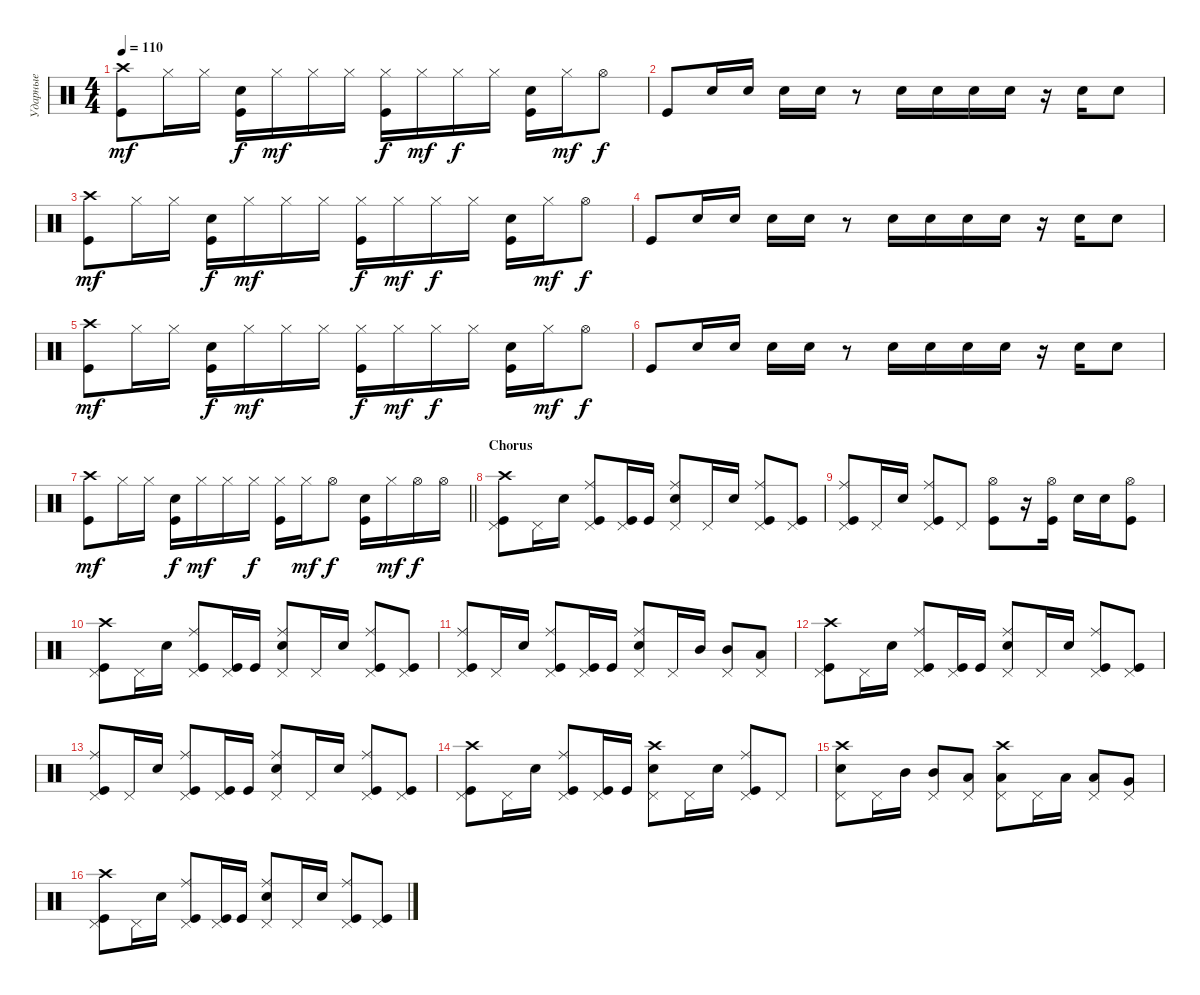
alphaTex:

\track ("Ударные" "Ударные") {instrument percussion}
\staff {score}
\articulation defaults
\ts (4 4)
\tempo 110
\clef neutral
\ks c
("Crash high (hit)" "Kick (hit)").8{dy mf} "Hi-Hat (closed)".16 "Hi-Hat (closed)".16 ("Snare (hit) 2" "Kick (hit)").16{dy f} "Hi-Hat (closed)".16{dy mf} "Hi-Hat (closed)".16 "Hi-Hat (closed)".16 ("Hi-Hat (closed)" "Kick (hit)").16{dy f} "Hi-Hat (closed)".16{dy mf} "Hi-Hat (closed)".16{dy f} "Hi-Hat (closed)".16 ("Kick (hit)" "Snare (hit) 2").16 "Hi-Hat (closed)".16{dy mf} "Hi-Hat (open)".8{dy f} |
"Kick (hit)".8 "Snare (hit) 2".16 "Snare (hit) 2".16 "Snare (hit) 2".16 "Snare (hit) 2".16 r.8 "Snare (hit) 2".16 "Snare (hit) 2".16 "Snare (hit) 2".16 "Snare (hit) 2".16 r.16 "Snare (hit) 2".16 "Snare (hit) 2".8 |
("Crash high (hit)" "Kick (hit)").8{dy mf} "Hi-Hat (closed)".16 "Hi-Hat (closed)".16 ("Snare (hit) 2" "Kick (hit)").16{dy f} "Hi-Hat (closed)".16{dy mf} "Hi-Hat (closed)".16 "Hi-Hat (closed)".16 ("Hi-Hat (closed)" "Kick (hit)").16{dy f} "Hi-Hat (closed)".16{dy mf} "Hi-Hat (closed)".16{dy f} "Hi-Hat (closed)".16 ("Kick (hit)" "Snare (hit) 2").16 "Hi-Hat (closed)".16{dy mf} "Hi-Hat (open)".8{dy f} |
"Kick (hit)".8 "Snare (hit) 2".16 "Snare (hit) 2".16 "Snare (hit) 2".16 "Snare (hit) 2".16 r.8 "Snare (hit) 2".16 "Snare (hit) 2".16 "Snare (hit) 2".16 "Snare (hit) 2".16 r.16 "Snare (hit) 2".16 "Snare (hit) 2".8 |
("Crash high (hit)" "Kick (hit)").8{dy mf} "Hi-Hat (closed)".16 "Hi-Hat (closed)".16 ("Snare (hit) 2" "Kick (hit)").16{dy f} "Hi-Hat (closed)".16{dy mf} "Hi-Hat (closed)".16 "Hi-Hat (closed)".16 ("Hi-Hat (closed)" "Kick (hit)").16{dy f} "Hi-Hat (closed)".16{dy mf} "Hi-Hat (closed)".16{dy f} "Hi-Hat (closed)".16 ("Kick (hit)" "Snare (hit) 2").16 "Hi-Hat (closed)".16{dy mf} "Hi-Hat (open)".8{dy f} |
"Kick (hit)".8 "Snare (hit) 2".16 "Snare (hit) 2".16 "Snare (hit) 2".16 "Snare (hit) 2".16 r.8 "Snare (hit) 2".16 "Snare (hit) 2".16 "Snare (hit) 2".16 "Snare (hit) 2".16 r.16 "Snare (hit) 2".16 "Snare (hit) 2".8 |
\barLineRight lightlight
("Crash high (hit)" "Kick (hit)").8{dy mf} "Hi-Hat (closed)".16 "Hi-Hat (closed)".16 ("Snare (hit) 2" "Kick (hit)").16{dy f} "Hi-Hat (closed)".16{dy mf} "Hi-Hat (closed)".16 "Hi-Hat (closed)".16{dy f} ("Hi-Hat (closed)" "Kick (hit)").16 "Hi-Hat (closed)".16{dy mf} "Hi-Hat (open)".8{dy f} ("Kick (hit)" "Snare (hit) 2").16 "Hi-Hat (closed)".16{dy mf} "Hi-Hat (open)".16{dy f} "Hi-Hat (open)".16 |
\section ("" "Chorus")
("Kick (hit)" "Crash high (hit)" "Pedal Hi-Hat (hit)").8 "Pedal Hi-Hat (hit)".16 "Snare (hit) 2".16 ("Kick (hit)" "Ride (middle)" "Pedal Hi-Hat (hit)").8 ("Pedal Hi-Hat (hit)" "Kick (hit)").16 "Kick (hit)".16 ("Snare (hit) 2" "Ride (middle)" "Pedal Hi-Hat (hit)").8 "Pedal Hi-Hat (hit)".16 "Snare (hit) 2".16 ("Kick (hit)" "Ride (middle)" "Pedal Hi-Hat (hit)").8 ("Kick (hit)" "Pedal Hi-Hat (hit)").8 |
("Kick (hit)" "Ride (middle)" "Pedal Hi-Hat (hit)").8 "Pedal Hi-Hat (hit)".16 "Snare (hit) 2".16 ("Kick (hit)" "Ride (middle)" "Pedal Hi-Hat (hit)").8 "Pedal Hi-Hat (hit)".8 ("Kick (hit)" "Hi-Hat (open)").8 r.16 ("Kick (hit)" "Hi-Hat (open)").16 "Snare (hit) 2".16 "Snare (hit) 2".16 ("Kick (hit)" "Hi-Hat (open)").8 |
("Kick (hit)" "Crash high (hit)" "Pedal Hi-Hat (hit)").8 "Pedal Hi-Hat (hit)".16 "Snare (hit) 2".16 ("Kick (hit)" "Ride (middle)" "Pedal Hi-Hat (hit)").8 ("Pedal Hi-Hat (hit)" "Kick (hit)").16 "Kick (hit)".16 ("Snare (hit) 2" "Ride (middle)" "Pedal Hi-Hat (hit)").8 "Pedal Hi-Hat (hit)".16 "Snare (hit) 2".16 ("Kick (hit)" "Ride (middle)" "Pedal Hi-Hat (hit)").8 ("Kick (hit)" "Pedal Hi-Hat (hit)").8 |
("Kick (hit)" "Ride (middle)" "Pedal Hi-Hat (hit)").8 "Pedal Hi-Hat (hit)".16 "Snare (hit) 2".16 ("Kick (hit)" "Ride (middle)" "Pedal Hi-Hat (hit)").8 ("Pedal Hi-Hat (hit)" "Kick (hit)").16 "Kick (hit)".16 ("Snare (hit) 2" "Pedal Hi-Hat (hit)" "Ride (middle)").8 "Pedal Hi-Hat (hit)".16 "Mid Tom (hit)".16 ("Pedal Hi-Hat (hit)" "Mid Tom (hit)").8 ("Pedal Hi-Hat (hit)" "Low Tom (hit)").8 |
("Kick (hit)" "Crash high (hit)" "Pedal Hi-Hat (hit)").8 "Pedal Hi-Hat (hit)".16 "Snare (hit) 2".16 ("Kick (hit)" "Ride (middle)" "Pedal Hi-Hat (hit)").8 ("Pedal Hi-Hat (hit)" "Kick (hit)").16 "Kick (hit)".16 ("Snare (hit) 2" "Ride (middle)" "Pedal Hi-Hat (hit)").8 "Pedal Hi-Hat (hit)".16 "Snare (hit) 2".16 ("Kick (hit)" "Ride (middle)" "Pedal Hi-Hat (hit)").8 ("Kick (hit)" "Pedal Hi-Hat (hit)").8 |
("Kick (hit)" "Ride (middle)" "Pedal Hi-Hat (hit)").8 "Pedal Hi-Hat (hit)".16 "Snare (hit) 2".16 ("Kick (hit)" "Ride (middle)" "Pedal Hi-Hat (hit)").8 ("Pedal Hi-Hat (hit)" "Kick (hit)").16 "Kick (hit)".16 ("Snare (hit) 2" "Ride (middle)" "Pedal Hi-Hat (hit)").8 "Pedal Hi-Hat (hit)".16 "Snare (hit) 2".16 ("Kick (hit)" "Ride (middle)" "Pedal Hi-Hat (hit)").8 ("Kick (hit)" "Pedal Hi-Hat (hit)").8 |
("Kick (hit)" "Crash high (hit)" "Pedal Hi-Hat (hit)").8 "Pedal Hi-Hat (hit)".16 "Snare (hit) 2".16 ("Kick (hit)" "Ride (middle)" "Pedal Hi-Hat (hit)").8 ("Pedal Hi-Hat (hit)" "Kick (hit)").16 "Kick (hit)".16 ("Snare (hit) 2" "Crash high (hit)" "Pedal Hi-Hat (hit)").8 "Pedal Hi-Hat (hit)".16 "Snare (hit) 2".16 ("Kick (hit)" "Ride (middle)" "Pedal Hi-Hat (hit)").8 "Pedal Hi-Hat (hit)".8 |
("Snare (hit) 2" "Crash high (hit)" "Pedal Hi-Hat (hit)").8 "Pedal Hi-Hat (hit)".16 "Mid Tom (hit)".16 ("Mid Tom (hit)" "Pedal Hi-Hat (hit)").8 ("Low Tom (hit)" "Pedal Hi-Hat (hit)").8 ("Low Tom (hit)" "Crash high (hit)" "Pedal Hi-Hat (hit)").8 "Pedal Hi-Hat (hit)".16 "Low Tom (hit)".16 ("Low Tom (hit)" "Pedal Hi-Hat (hit)").8 ("Very Low Tom (hit)" "Pedal Hi-Hat (hit)").8 |
("Kick (hit)" "Crash high (hit)" "Pedal Hi-Hat (hit)").8 "Pedal Hi-Hat (hit)".16 "Snare (hit) 2".16 ("Kick (hit)" "Ride (middle)" "Pedal Hi-Hat (hit)").8 ("Pedal Hi-Hat (hit)" "Kick (hit)").16 "Kick (hit)".16 ("Snare (hit) 2" "Ride (middle)" "Pedal Hi-Hat (hit)").8 "Pedal Hi-Hat (hit)".16 "Snare (hit) 2".16 ("Kick (hit)" "Ride (middle)" "Pedal Hi-Hat (hit)").8 ("Kick (hit)" "Pedal Hi-Hat (hit)").8
